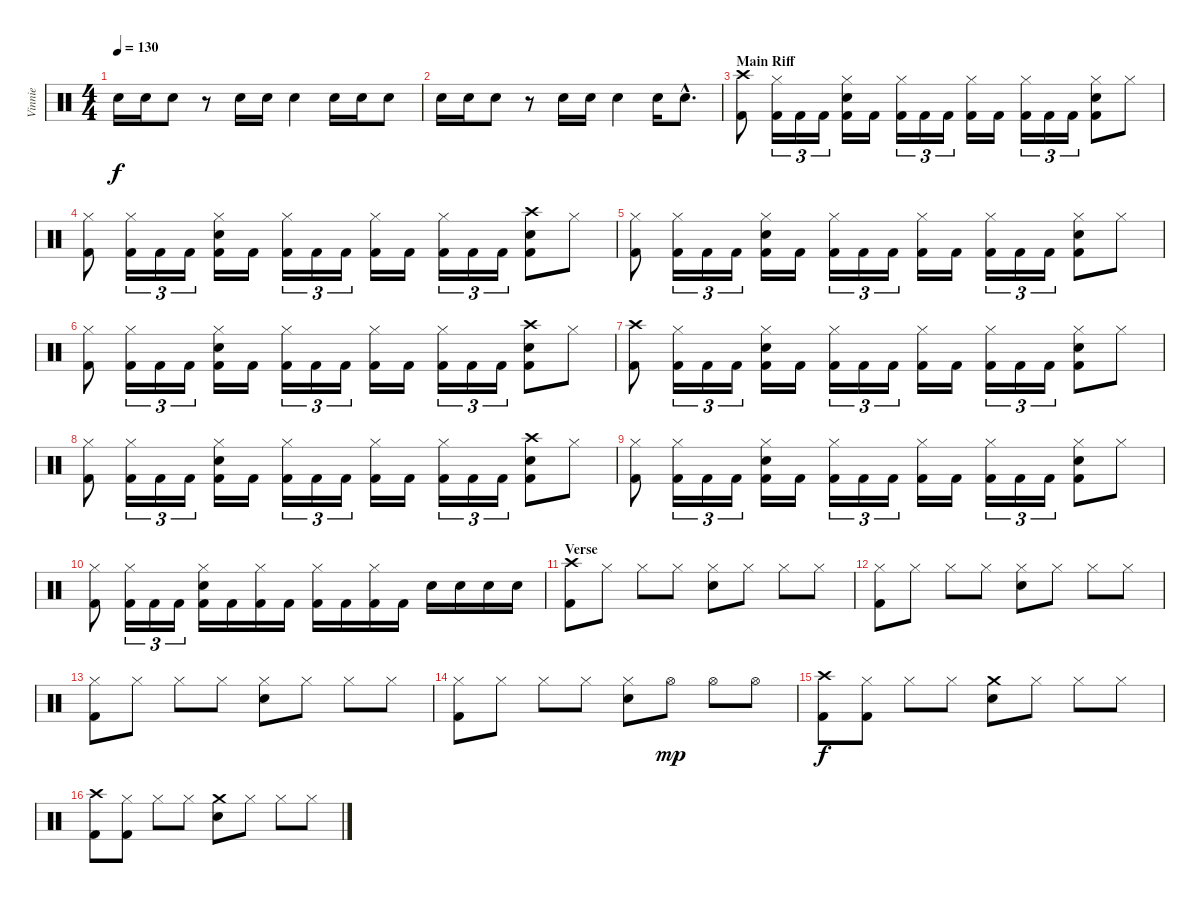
\track ("Vinnie" "Vinnie") {instrument percussion}
\staff {score}
\articulation defaults
\ts (4 4)
\tempo 130
\clef neutral
\ks c "Electric Snare (hit)".16{dy f} "Electric Snare (hit)".16 "Electric Snare (hit)".8
r.8 "Electric Snare (hit)".16 "Electric Snare (hit)".16 "Electric Snare (hit)".4 "Electric Snare (hit)".16 "Electric Snare (hit)".16 "Electric Snare (hit)".8 |
"Electric Snare (hit)".16 "Electric Snare (hit)".16 "Electric Snare (hit)".8 r.8 "Electric Snare (hit)".16 "Electric Snare (hit)".16 "Electric Snare (hit)".4 "Electric Snare (hit)".16 "Electric Snare (hit)"{hac}.8{d} |
\section ("" "Main Riff")
("Crash high (hit)" "Kick (hit) 2").8 ("Hi-Hat (closed)" "Kick (hit) 2").16{tu (3 2)} "Kick (hit) 2".16{tu (3 2)} "Kick (hit) 2".16{tu (3 2)} ("Hi-Hat (closed)" "Electric Snare (hit)" "Kick (hit) 2").16 "Kick (hit) 2".16 ("Hi-Hat (closed)" "Kick (hit) 2").16{tu (3 2)} "Kick (hit) 2".16{tu (3 2)} "Kick (hit) 2".16{tu (3 2)} ("Hi-Hat (closed)" "Kick (hit) 2").16 "Kick (hit) 2".16 ("Hi-Hat (closed)" "Kick (hit) 2").16{tu (3 2)} "Kick (hit) 2".16{tu (3 2)} "Kick (hit) 2".16{tu (3 2)} ("Hi-Hat (closed)" "Electric Snare (hit)" "Kick (hit) 2").8 "Hi-Hat (closed)".8 |
("Hi-Hat (closed)" "Kick (hit) 2").8 ("Hi-Hat (closed)" "Kick (hit) 2").16{tu (3 2)} "Kick (hit) 2".16{tu (3 2)} "Kick (hit) 2".16{tu (3 2)} ("Hi-Hat (closed)" "Electric Snare (hit)" "Kick (hit) 2").16 "Kick (hit) 2".16 ("Hi-Hat (closed)" "Kick (hit) 2").16{tu (3 2)} "Kick (hit) 2".16{tu (3 2)} "Kick (hit) 2".16{tu (3 2)} ("Hi-Hat (closed)" "Kick (hit) 2").16 "Kick (hit) 2".16 ("Hi-Hat (closed)" "Kick (hit) 2").16{tu (3 2)} "Kick (hit) 2".16{tu (3 2)} "Kick (hit) 2".16{tu (3 2)} ("Crash high (hit)" "Electric Snare (hit)" "Kick (hit) 2").8 "Hi-Hat (closed)".8 |
("Hi-Hat (closed)" "Kick (hit) 2").8 ("Hi-Hat (closed)" "Kick (hit) 2").16{tu (3 2)} "Kick (hit) 2".16{tu (3 2)} "Kick (hit) 2".16{tu (3 2)} ("Hi-Hat (closed)" "Electric Snare (hit)" "Kick (hit) 2").16 "Kick (hit) 2".16 ("Hi-Hat (closed)" "Kick (hit) 2").16{tu (3 2)} "Kick (hit) 2".16{tu (3 2)} "Kick (hit) 2".16{tu (3 2)} ("Hi-Hat (closed)" "Kick (hit) 2").16 "Kick (hit) 2".16 ("Hi-Hat (closed)" "Kick (hit) 2").16{tu (3 2)} "Kick (hit) 2".16{tu (3 2)} "Kick (hit) 2".16{tu (3 2)} ("Hi-Hat (closed)" "Electric Snare (hit)" "Kick (hit) 2").8 "Hi-Hat (closed)".8 |
("Hi-Hat (closed)" "Kick (hit) 2").8 ("Hi-Hat (closed)" "Kick (hit) 2").16{tu (3 2)} "Kick (hit) 2".16{tu (3 2)} "Kick (hit) 2".16{tu (3 2)} ("Hi-Hat (closed)" "Electric Snare (hit)" "Kick (hit) 2").16 "Kick (hit) 2".16 ("Hi-Hat (closed)" "Kick (hit) 2").16{tu (3 2)} "Kick (hit) 2".16{tu (3 2)} "Kick (hit) 2".16{tu (3 2)} ("Hi-Hat (closed)" "Kick (hit) 2").16 "Kick (hit) 2".16 ("Hi-Hat (closed)" "Kick (hit) 2").16{tu (3 2)} "Kick (hit) 2".16{tu (3 2)} "Kick (hit) 2".16{tu (3 2)} ("Crash high (hit)" "Electric Snare (hit)" "Kick (hit) 2").8 "Hi-Hat (closed)".8 |
("Crash high (hit)" "Kick (hit) 2").8 ("Hi-Hat (closed)" "Kick (hit) 2").16{tu (3 2)} "Kick (hit) 2".16{tu (3 2)} "Kick (hit) 2".16{tu (3 2)} ("Hi-Hat (closed)" "Electric Snare (hit)" "Kick (hit) 2").16 "Kick (hit) 2".16 ("Hi-Hat (closed)" "Kick (hit) 2").16{tu (3 2)} "Kick (hit) 2".16{tu (3 2)} "Kick (hit) 2".16{tu (3 2)} ("Hi-Hat (closed)" "Kick (hit) 2").16 "Kick (hit) 2".16 ("Hi-Hat (closed)" "Kick (hit) 2").16{tu (3 2)} "Kick (hit) 2".16{tu (3 2)} "Kick (hit) 2".16{tu (3 2)} ("Hi-Hat (closed)" "Electric Snare (hit)" "Kick (hit) 2").8 "Hi-Hat (closed)".8 |
("Hi-Hat (closed)" "Kick (hit) 2").8 ("Hi-Hat (closed)" "Kick (hit) 2").16{tu (3 2)} "Kick (hit) 2".16{tu (3 2)} "Kick (hit) 2".16{tu (3 2)} ("Hi-Hat (closed)" "Electric Snare (hit)" "Kick (hit) 2").16 "Kick (hit) 2".16 ("Hi-Hat (closed)" "Kick (hit) 2").16{tu (3 2)} "Kick (hit) 2".16{tu (3 2)} "Kick (hit) 2".16{tu (3 2)} ("Hi-Hat (closed)" "Kick (hit) 2").16 "Kick (hit) 2".16 ("Hi-Hat (closed)" "Kick (hit) 2").16{tu (3 2)} "Kick (hit) 2".16{tu (3 2)} "Kick (hit) 2".16{tu (3 2)} ("Crash high (hit)" "Electric Snare (hit)" "Kick (hit) 2").8 "Hi-Hat (closed)".8 |
("Hi-Hat (closed)" "Kick (hit) 2").8 ("Hi-Hat (closed)" "Kick (hit) 2").16{tu (3 2)} "Kick (hit) 2".16{tu (3 2)} "Kick (hit) 2".16{tu (3 2)} ("Hi-Hat (closed)" "Electric Snare (hit)" "Kick (hit) 2").16 "Kick (hit) 2".16 ("Hi-Hat (closed)" "Kick (hit) 2").16{tu (3 2)} "Kick (hit) 2".16{tu (3 2)} "Kick (hit) 2".16{tu (3 2)} ("Hi-Hat (closed)" "Kick (hit) 2").16 "Kick (hit) 2".16 ("Hi-Hat (closed)" "Kick (hit) 2").16{tu (3 2)} "Kick (hit) 2".16{tu (3 2)} "Kick (hit) 2".16{tu (3 2)} ("Hi-Hat (closed)" "Electric Snare (hit)" "Kick (hit) 2").8 "Hi-Hat (closed)".8 |
("Hi-Hat (closed)" "Kick (hit) 2").8 ("Hi-Hat (closed)" "Kick (hit) 2").16{tu (3 2)} "Kick (hit) 2".16{tu (3 2)} "Kick (hit) 2".16{tu (3 2)} ("Hi-Hat (closed)" "Electric Snare (hit)" "Kick (hit) 2").16 "Kick (hit) 2".16 ("Hi-Hat (closed)" "Kick (hit) 2").16 "Kick (hit) 2".16 ("Hi-Hat (closed)" "Kick (hit) 2").16 "Kick (hit) 2".16 ("Hi-Hat (closed)" "Kick (hit) 2").16 "Kick (hit) 2".16 "Electric Snare (hit)".16 "Electric Snare (hit)".16 "Electric Snare (hit)".16 "Electric Snare (hit)".16 |
\section ("" "Verse")
("Crash high (hit)" "Kick (hit) 2").8 "Hi-Hat (closed)".8 "Hi-Hat (closed)".8 "Hi-Hat (closed)".8 ("Hi-Hat (closed)" "Electric Snare (hit)").8 "Hi-Hat (closed)".8 "Hi-Hat (closed)".8 "Hi-Hat (closed)".8 |
("Hi-Hat (closed)" "Kick (hit) 2").8 "Hi-Hat (closed)".8 "Hi-Hat (closed)".8 "Hi-Hat (closed)".8 ("Hi-Hat (closed)" "Electric Snare (hit)").8 "Hi-Hat (closed)".8 "Hi-Hat (closed)".8 "Hi-Hat (closed)".8 |
("Hi-Hat (closed)" "Kick (hit) 2").8 "Hi-Hat (closed)".8 "Hi-Hat (closed)".8 "Hi-Hat (closed)".8 ("Hi-Hat (closed)" "Electric Snare (hit)").8 "Hi-Hat (closed)".8 "Hi-Hat (closed)".8 "Hi-Hat (closed)".8 |
("Hi-Hat (closed)" "Kick (hit) 2").8 "Hi-Hat (closed)".8 "Hi-Hat (closed)".8 "Hi-Hat (closed)".8 ("Hi-Hat (closed)" "Electric Snare (hit)").8 "Hi-Hat (open)".8{dy mp} "Hi-Hat (open)".8 "Hi-Hat (open)".8 |
("Crash high (hit)" "Kick (hit) 2").8{dy f} ("Hi-Hat (closed)" "Kick (hit) 2").8 "Hi-Hat (closed)".8 "Hi-Hat (closed)".8 ("Crash medium (hit)" "Electric Snare (hit)").8 "Hi-Hat (closed)".8 "Hi-Hat (closed)".8 "Hi-Hat (closed)".8 |
("Crash high (hit)" "Kick (hit) 2").8 ("Hi-Hat (closed)" "Kick (hit) 2").8 "Hi-Hat (closed)".8 "Hi-Hat (closed)".8 ("Crash medium (hit)" "Electric Snare (hit)").8 "Hi-Hat (closed)".8 "Hi-Hat (closed)".8 "Hi-Hat (closed)".8
